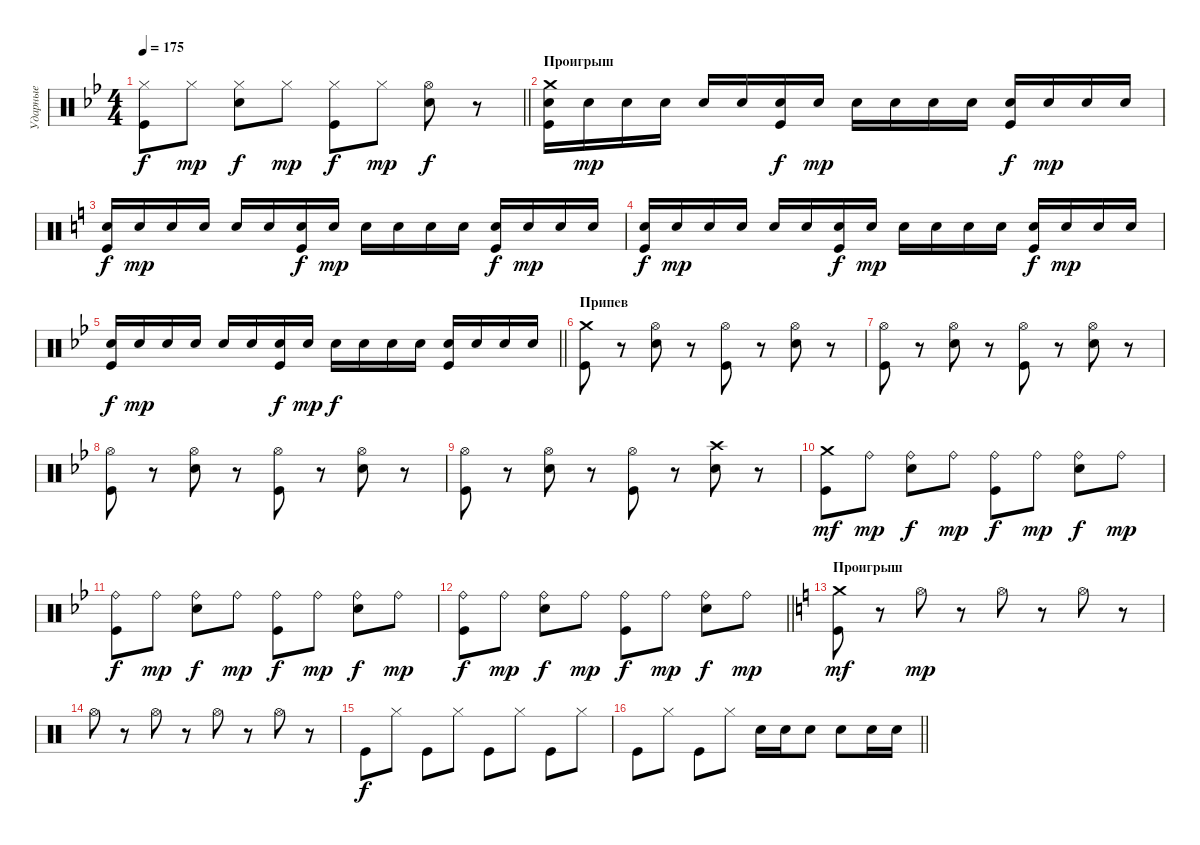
\track ("Ударные" "Ударные") {instrument percussion}
\staff {score}
\articulation defaults
\ts (4 4)
\tempo 175
\clef neutral
\barLineRight lightlight
\ks bb
("Hi-Hat (closed)" "Kick (hit)").8{dy f} "Hi-Hat (closed)".8{dy mp} ("Hi-Hat (closed)" "Electric Snare (hit)").8{dy f} "Hi-Hat (closed)".8{dy mp} ("Hi-Hat (closed)" "Kick (hit)").8{dy f} "Hi-Hat (closed)".8{dy mp} ("Hi-Hat (open)" "Electric Snare (hit)").8{dy f} r.8 |
\section ("" "Проигрыш")
("Crash medium (hit)" "Electric Snare (hit)" "Kick (hit)").16 "Electric Snare (hit)".16{dy mp} "Electric Snare (hit)".16 "Electric Snare (hit)".16 "Electric Snare (hit)".16 "Electric Snare (hit)".16 ("Electric Snare (hit)" "Kick (hit)").16{dy f} "Electric Snare (hit)".16{dy mp} "Electric Snare (hit)".16 "Electric Snare (hit)".16 "Electric Snare (hit)".16 "Electric Snare (hit)".16 ("Electric Snare (hit)" "Kick (hit)").16{dy f} "Electric Snare (hit)".16{dy mp} "Electric Snare (hit)".16 "Electric Snare (hit)".16 |
\ks c
("Electric Snare (hit)" "Kick (hit)").16{dy f} "Electric Snare (hit)".16{dy mp} "Electric Snare (hit)".16 "Electric Snare (hit)".16 "Electric Snare (hit)".16 "Electric Snare (hit)".16 ("Electric Snare (hit)" "Kick (hit)").16{dy f} "Electric Snare (hit)".16{dy mp} "Electric Snare (hit)".16 "Electric Snare (hit)".16 "Electric Snare (hit)".16 "Electric Snare (hit)".16 ("Electric Snare (hit)" "Kick (hit)").16{dy f} "Electric Snare (hit)".16{dy mp} "Electric Snare (hit)".16 "Electric Snare (hit)".16 |
("Electric Snare (hit)" "Kick (hit)").16{dy f} "Electric Snare (hit)".16{dy mp} "Electric Snare (hit)".16 "Electric Snare (hit)".16 "Electric Snare (hit)".16 "Electric Snare (hit)".16 ("Electric Snare (hit)" "Kick (hit)").16{dy f} "Electric Snare (hit)".16{dy mp} "Electric Snare (hit)".16 "Electric Snare (hit)".16 "Electric Snare (hit)".16 "Electric Snare (hit)".16 ("Electric Snare (hit)" "Kick (hit)").16{dy f} "Electric Snare (hit)".16{dy mp} "Electric Snare (hit)".16 "Electric Snare (hit)".16 |
\barLineRight lightlight
\ks bb
("Electric Snare (hit)" "Kick (hit)").16{dy f} "Electric Snare (hit)".16{dy mp} "Electric Snare (hit)".16 "Electric Snare (hit)".16 "Electric Snare (hit)".16 "Electric Snare (hit)".16 ("Electric Snare (hit)" "Kick (hit)").16{dy f} "Electric Snare (hit)".16{dy mp} "Electric Snare (hit)".16{dy f} "Electric Snare (hit)".16 "Electric Snare (hit)".16 "Electric Snare (hit)".16 ("Electric Snare (hit)" "Kick (hit)").16 "Electric Snare (hit)".16 "Electric Snare (hit)".16 "Electric Snare (hit)".16 |
\section ("" "Припев")
("Crash medium (hit)" "Kick (hit)").8 r.8 ("Hi-Hat (open)" "Electric Snare (hit)").8 r.8 ("Hi-Hat (open)" "Kick (hit)").8 r.8 ("Hi-Hat (open)" "Electric Snare (hit)").8 r.8 |
("Hi-Hat (open)" "Kick (hit)").8 r.8 ("Hi-Hat (open)" "Electric Snare (hit)").8 r.8 ("Hi-Hat (open)" "Kick (hit)").8 r.8 ("Hi-Hat (open)" "Electric Snare (hit)").8 r.8 |
("Hi-Hat (open)" "Kick (hit)").8 r.8 ("Hi-Hat (open)" "Electric Snare (hit)").8 r.8 ("Hi-Hat (open)" "Kick (hit)").8 r.8 ("Hi-Hat (open)" "Electric Snare (hit)").8 r.8 |
("Hi-Hat (open)" "Kick (hit)").8 r.8 ("Hi-Hat (open)" "Electric Snare (hit)").8 r.8 ("Hi-Hat (open)" "Kick (hit)").8 r.8 ("Crash high (hit)" "Electric Snare (hit)").8 r.8 |
("Crash medium (hit)" "Kick (hit)").8{dy mf} "Ride (bell)".8{dy mp} ("Ride (bell)" "Electric Snare (hit)").8{dy f} "Ride (bell)".8{dy mp} ("Ride (bell)" "Kick (hit)").8{dy f} "Ride (bell)".8{dy mp} ("Ride (bell)" "Electric Snare (hit)").8{dy f} "Ride (bell)".8{dy mp} |
("Ride (bell)" "Kick (hit)").8{dy f} "Ride (bell)".8{dy mp} ("Ride (bell)" "Electric Snare (hit)").8{dy f} "Ride (bell)".8{dy mp} ("Ride (bell)" "Kick (hit)").8{dy f} "Ride (bell)".8{dy mp} ("Ride (bell)" "Electric Snare (hit)").8{dy f} "Ride (bell)".8{dy mp} |
\barLineRight lightlight
("Ride (bell)" "Kick (hit)").8{dy f} "Ride (bell)".8{dy mp} ("Ride (bell)" "Electric Snare (hit)").8{dy f} "Ride (bell)".8{dy mp} ("Ride (bell)" "Kick (hit)").8{dy f} "Ride (bell)".8{dy mp} ("Ride (bell)" "Electric Snare (hit)").8{dy f} "Ride (bell)".8{dy mp} |
\section ("" "Проигрыш")
\ks c
("Crash medium (hit)" "Kick (hit)").8{dy mf} r.8 "Hi-Hat (open)".8{dy mp} r.8 "Hi-Hat (open)".8 r.8 "Hi-Hat (open)".8 r.8 |
"Hi-Hat (open)".8 r.8 "Hi-Hat (open)".8 r.8 "Hi-Hat (open)".8 r.8 "Hi-Hat (open)".8 r.8 |
"Kick (hit)".8{dy f} "Hi-Hat (closed)".8 "Kick (hit)".8 "Hi-Hat (closed)".8 "Kick (hit)".8 "Hi-Hat (closed)".8 "Kick (hit)".8 "Hi-Hat (closed)".8 |
\barLineRight lightlight "Kick (hit)".8 "Hi-Hat (closed)".8 "Kick (hit)".8 "Hi-Hat (closed)".8 "Electric Snare (hit)".16 "Electric Snare (hit)".16 "Electric Snare (hit)".8 "Electric Snare (hit)".8 "Electric Snare (hit)".16 "Electric Snare (hit)".16
